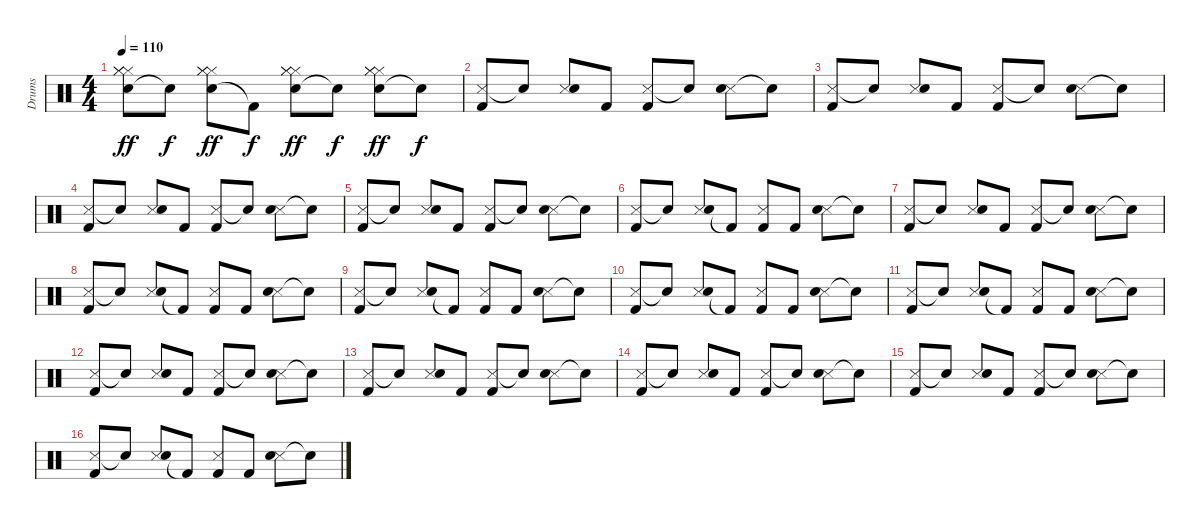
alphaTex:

\track ("Drums" "Drums") {instrument percussion}
\staff {score}
\articulation defaults
\ts (4 4)
\tempo 110
\clef neutral
\ks c
("Snare (hit) 2" "Hi-Hat (closed)" "Hi-Hat (closed)" "Hi-Hat (closed)").8{dy ff} "Electric Snare (hit)"{t}.8{dy f} ("Snare (hit) 2" "Hi-Hat (closed)" "Hi-Hat (closed)" "Hi-Hat (closed)").8{dy ff} "Kick (hit) 2"{t}.8{dy f} ("Snare (hit) 2" "Hi-Hat (closed)" "Hi-Hat (closed)" "Hi-Hat (closed)").8{dy ff} "Electric Snare (hit)"{t}.8{dy f} ("Snare (hit) 2" "Hi-Hat (closed)" "Hi-Hat (closed)" "Hi-Hat (closed)").8{dy ff} "Snare (hit)"{t}.8{dy f} |
("Snare (side stick) 3" "Kick (hit) 2").8 "Electric Snare (hit)"{t}.8 ("Snare (side stick) 3" "Snare (hit) 2").8 "Kick (hit) 2".8 ("Snare (side stick) 3" "Kick (hit) 2").8 "Electric Snare (hit)"{t}.8 ("Snare (side stick) 3" "Snare (hit) 2").8 "Electric Snare (hit)"{t}.8 |
("Snare (side stick) 3" "Kick (hit) 2").8 "Electric Snare (hit)"{t}.8 ("Snare (side stick) 3" "Snare (hit) 2").8 "Kick (hit) 2".8 ("Snare (side stick) 3" "Kick (hit) 2").8 "Electric Snare (hit)"{t}.8 ("Snare (side stick) 3" "Snare (hit) 2").8 "Electric Snare (hit)"{t}.8 |
("Snare (side stick) 3" "Kick (hit) 2").8 "Electric Snare (hit)"{t}.8 ("Snare (side stick) 3" "Snare (hit) 2").8 "Kick (hit) 2".8 ("Snare (side stick) 3" "Kick (hit) 2").8 "Electric Snare (hit)"{t}.8 ("Snare (side stick) 3" "Snare (hit) 2").8 "Electric Snare (hit)"{t}.8 |
("Snare (side stick) 3" "Kick (hit) 2").8 "Electric Snare (hit)"{t}.8 ("Snare (side stick) 3" "Snare (hit) 2").8 "Kick (hit) 2".8 ("Snare (side stick) 3" "Kick (hit) 2").8 "Electric Snare (hit)"{t}.8 ("Snare (side stick) 3" "Snare (hit) 2").8 "Electric Snare (hit)"{t}.8 |
("Snare (side stick) 3" "Kick (hit) 2").8 "Electric Snare (hit)"{t}.8 ("Snare (side stick) 3" "Snare (hit) 2").8 "Kick (hit) 2"{t}.8 ("Snare (side stick) 3" "Kick (hit) 2").8 "Kick (hit) 2".8 ("Snare (side stick) 3" "Snare (hit) 2").8 "Electric Snare (hit)"{t}.8 |
("Snare (side stick) 3" "Kick (hit) 2").8 "Electric Snare (hit)"{t}.8 ("Snare (side stick) 3" "Snare (hit) 2").8 "Kick (hit) 2".8 ("Snare (side stick) 3" "Kick (hit) 2").8 "Electric Snare (hit)"{t}.8 ("Snare (side stick) 3" "Snare (hit) 2").8 "Electric Snare (hit)"{t}.8 |
("Snare (side stick) 3" "Kick (hit) 2").8 "Electric Snare (hit)"{t}.8 ("Snare (side stick) 3" "Snare (hit) 2").8 "Kick (hit) 2"{t}.8 ("Snare (side stick) 3" "Kick (hit) 2").8 "Kick (hit) 2".8 ("Snare (side stick) 3" "Snare (hit) 2").8 "Electric Snare (hit)"{t}.8 |
("Snare (side stick) 3" "Kick (hit) 2").8 "Electric Snare (hit)"{t}.8 ("Snare (side stick) 3" "Snare (hit) 2").8 "Kick (hit) 2"{t}.8 ("Snare (side stick) 3" "Kick (hit) 2").8 "Kick (hit) 2".8 ("Snare (side stick) 3" "Snare (hit) 2").8 "Electric Snare (hit)"{t}.8 |
("Snare (side stick) 3" "Kick (hit) 2").8 "Electric Snare (hit)"{t}.8 ("Snare (side stick) 3" "Snare (hit) 2").8 "Kick (hit) 2"{t}.8 ("Snare (side stick) 3" "Kick (hit) 2").8 "Kick (hit) 2".8 ("Snare (side stick) 3" "Snare (hit) 2").8 "Electric Snare (hit)"{t}.8 |
("Snare (side stick) 3" "Kick (hit) 2").8 "Electric Snare (hit)"{t}.8 ("Snare (side stick) 3" "Snare (hit) 2").8 "Kick (hit) 2"{t}.8 ("Snare (side stick) 3" "Kick (hit) 2").8 "Kick (hit) 2".8 ("Snare (side stick) 3" "Snare (hit) 2").8 "Electric Snare (hit)"{t}.8 |
("Snare (side stick) 3" "Kick (hit) 2").8 "Electric Snare (hit)"{t}.8 ("Snare (side stick) 3" "Snare (hit) 2").8 "Kick (hit) 2".8 ("Snare (side stick) 3" "Kick (hit) 2").8 "Electric Snare (hit)"{t}.8 ("Snare (side stick) 3" "Snare (hit) 2").8 "Electric Snare (hit)"{t}.8 |
("Snare (side stick) 3" "Kick (hit) 2").8 "Electric Snare (hit)"{t}.8 ("Snare (side stick) 3" "Snare (hit) 2").8 "Kick (hit) 2".8 ("Snare (side stick) 3" "Kick (hit) 2").8 "Electric Snare (hit)"{t}.8 ("Snare (side stick) 3" "Snare (hit) 2").8 "Electric Snare (hit)"{t}.8 |
("Snare (side stick) 3" "Kick (hit) 2").8 "Electric Snare (hit)"{t}.8 ("Snare (side stick) 3" "Snare (hit) 2").8 "Kick (hit) 2".8 ("Snare (side stick) 3" "Kick (hit) 2").8 "Electric Snare (hit)"{t}.8 ("Snare (side stick) 3" "Snare (hit) 2").8 "Electric Snare (hit)"{t}.8 |
("Snare (side stick) 3" "Kick (hit) 2").8 "Electric Snare (hit)"{t}.8 ("Snare (side stick) 3" "Snare (hit) 2").8 "Kick (hit) 2".8 ("Snare (side stick) 3" "Kick (hit) 2").8 "Electric Snare (hit)"{t}.8 ("Snare (side stick) 3" "Snare (hit) 2").8 "Electric Snare (hit)"{t}.8 |
("Snare (side stick) 3" "Kick (hit) 2").8 "Electric Snare (hit)"{t}.8 ("Snare (side stick) 3" "Snare (hit) 2").8 "Kick (hit) 2"{t}.8 ("Snare (side stick) 3" "Kick (hit) 2").8 "Kick (hit) 2".8 ("Snare (side stick) 3" "Snare (hit) 2").8 "Electric Snare (hit)"{t}.8
